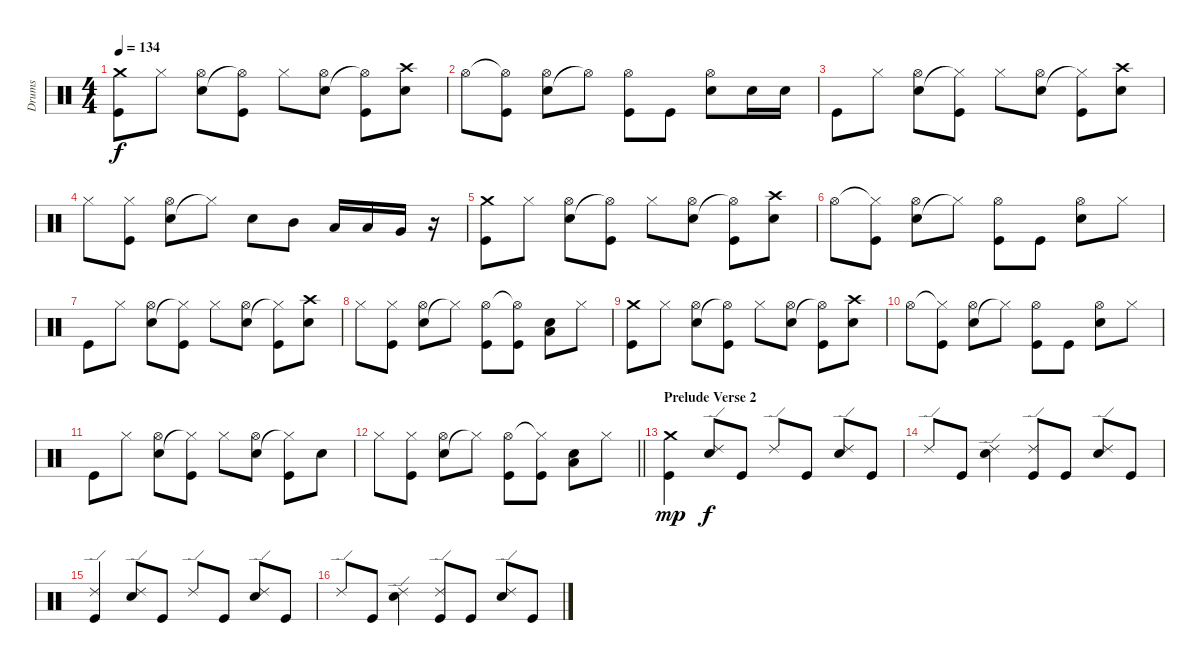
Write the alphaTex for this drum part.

\track ("Drums" "Drums") {instrument percussion}
\staff {score}
\articulation defaults
\ts (4 4)
\tempo 134
\clef neutral
\ks c
("Crash medium (hit)" "Kick (hit)").8{dy f} "Hi-Hat (closed)".8 ("Snare (hit) 2" "Hi-Hat (open)").8 ("Hi-Hat (open)"{t} "Kick (hit)").8 "Hi-Hat (closed)".8 ("Snare (hit) 2" "Hi-Hat (open)").8 ("Hi-Hat (open)"{t} "Kick (hit)").8 ("Crash high (hit)" "Snare (hit) 2").8 |
"Hi-Hat (open)".8 ("Hi-Hat (open)"{t} "Kick (hit)").8 ("Snare (hit) 2" "Hi-Hat (open)").8 "Hi-Hat (open)"{t}.8 ("Hi-Hat (open)" "Kick (hit)").8 "Kick (hit)".8 ("Snare (hit) 2" "Hi-Hat (open)").8 "Snare (hit) 2".16 "Snare (hit) 2".16 |
"Kick (hit)".8 "Hi-Hat (closed)".8 ("Snare (hit) 2" "Hi-Hat (open)").8 ("Hi-Hat (closed)"{t} "Kick (hit)").8 "Hi-Hat (closed)".8 ("Snare (hit) 2" "Hi-Hat (open)").8 ("Hi-Hat (closed)"{t} "Kick (hit)").8 ("Crash high (hit)" "Snare (hit) 2").8 |
"Hi-Hat (closed)".8 ("Hi-Hat (closed)" "Kick (hit)").8 ("Snare (hit) 2" "Hi-Hat (open)").8 "Hi-Hat (closed)"{t}.8 "Snare (hit) 2".8 "Mid Tom (hit)".8 "Low Tom (hit)".16 "Low Tom (hit)".16 "Very Low Tom (hit)".16 r.16 |
("Crash medium (hit)" "Kick (hit)").8 "Hi-Hat (closed)".8 ("Snare (hit) 2" "Hi-Hat (open)").8 ("Hi-Hat (open)"{t} "Kick (hit)").8 "Hi-Hat (closed)".8 ("Snare (hit) 2" "Hi-Hat (open)").8 ("Hi-Hat (open)"{t} "Kick (hit)").8 ("Crash high (hit)" "Snare (hit) 2").8 |
"Hi-Hat (open)".8 ("Hi-Hat (closed)"{t} "Kick (hit)").8 ("Snare (hit) 2" "Hi-Hat (open)").8 "Hi-Hat (closed)"{t}.8 ("Hi-Hat (open)" "Kick (hit)").8 "Kick (hit)".8 ("Snare (hit) 2" "Hi-Hat (open)").8 "Hi-Hat (closed)".8 |
"Kick (hit)".8 "Hi-Hat (closed)".8 ("Snare (hit) 2" "Hi-Hat (open)").8 ("Hi-Hat (closed)"{t} "Kick (hit)").8 "Hi-Hat (closed)".8 ("Snare (hit) 2" "Hi-Hat (open)").8 ("Hi-Hat (closed)"{t} "Kick (hit)").8 ("Crash high (hit)" "Snare (hit) 2").8 |
"Hi-Hat (closed)".8 ("Hi-Hat (closed)" "Kick (hit)").8 ("Snare (hit) 2" "Hi-Hat (open)").8 "Hi-Hat (closed)"{t}.8 ("Hi-Hat (open)" "Kick (hit)").8 ("Hi-Hat (open)"{t} "Kick (hit)").8 ("Snare (hit) 2" "Low Floor Tom (hit)").8 "Hi-Hat (closed)".8 |
("Crash medium (hit)" "Kick (hit)").8 "Hi-Hat (closed)".8 ("Snare (hit) 2" "Hi-Hat (open)").8 ("Hi-Hat (open)"{t} "Kick (hit)").8 "Hi-Hat (closed)".8 ("Snare (hit) 2" "Hi-Hat (open)").8 ("Hi-Hat (open)"{t} "Kick (hit)").8 ("Crash high (hit)" "Snare (hit) 2").8 |
"Hi-Hat (open)".8 ("Hi-Hat (closed)"{t} "Kick (hit)").8 ("Snare (hit) 2" "Hi-Hat (open)").8 "Hi-Hat (closed)"{t}.8 ("Hi-Hat (open)" "Kick (hit)").8 "Kick (hit)".8 ("Snare (hit) 2" "Hi-Hat (open)").8 "Hi-Hat (closed)".8 |
"Kick (hit)".8 "Hi-Hat (closed)".8 ("Snare (hit) 2" "Hi-Hat (open)").8 ("Hi-Hat (closed)"{t} "Kick (hit)").8 "Hi-Hat (closed)".8 ("Snare (hit) 2" "Hi-Hat (open)").8 ("Hi-Hat (closed)"{t} "Kick (hit)").8 "Snare (hit) 2".8 |
\barLineRight lightlight "Hi-Hat (closed)".8
("Hi-Hat (closed)" "Kick (hit)").8 ("Snare (hit) 2" "Hi-Hat (open)").8 "Hi-Hat (closed)"{t}.8 ("Hi-Hat (open)" "Kick (hit)").8 ("Hi-Hat (closed)"{t} "Kick (hit)").8 ("Snare (hit) 2" "Low Floor Tom (hit)").8 "Hi-Hat (closed)".8 |
\section ("" "Prelude Verse 2")
("Crash medium (hit)" "Kick (hit)").4{dy mp} ("Ride (edge) 2" "Snare (hit) 2").8{dy f} "Kick (hit)".8 "Ride (edge) 2".8 "Kick (hit)".8 ("Ride (edge) 2" "Snare (hit) 2").8 "Kick (hit)".8 |
"Ride (edge) 2".8 "Kick (hit)".8 ("Ride (edge) 2" "Snare (hit) 2").4 ("Ride (edge) 2" "Kick (hit)").8 "Kick (hit)".8 ("Ride (edge) 2" "Snare (hit) 2").8 "Kick (hit)".8 |
("Ride (edge) 2" "Kick (hit)").4 ("Ride (edge) 2" "Snare (hit) 2").8 "Kick (hit)".8 "Ride (edge) 2".8 "Kick (hit)".8 ("Ride (edge) 2" "Snare (hit) 2").8 "Kick (hit)".8 |
"Ride (edge) 2".8 "Kick (hit)".8 ("Ride (edge) 2" "Snare (hit) 2").4 ("Ride (edge) 2" "Kick (hit)").8 "Kick (hit)".8 ("Ride (edge) 2" "Snare (hit) 2").8 "Kick (hit)".8
